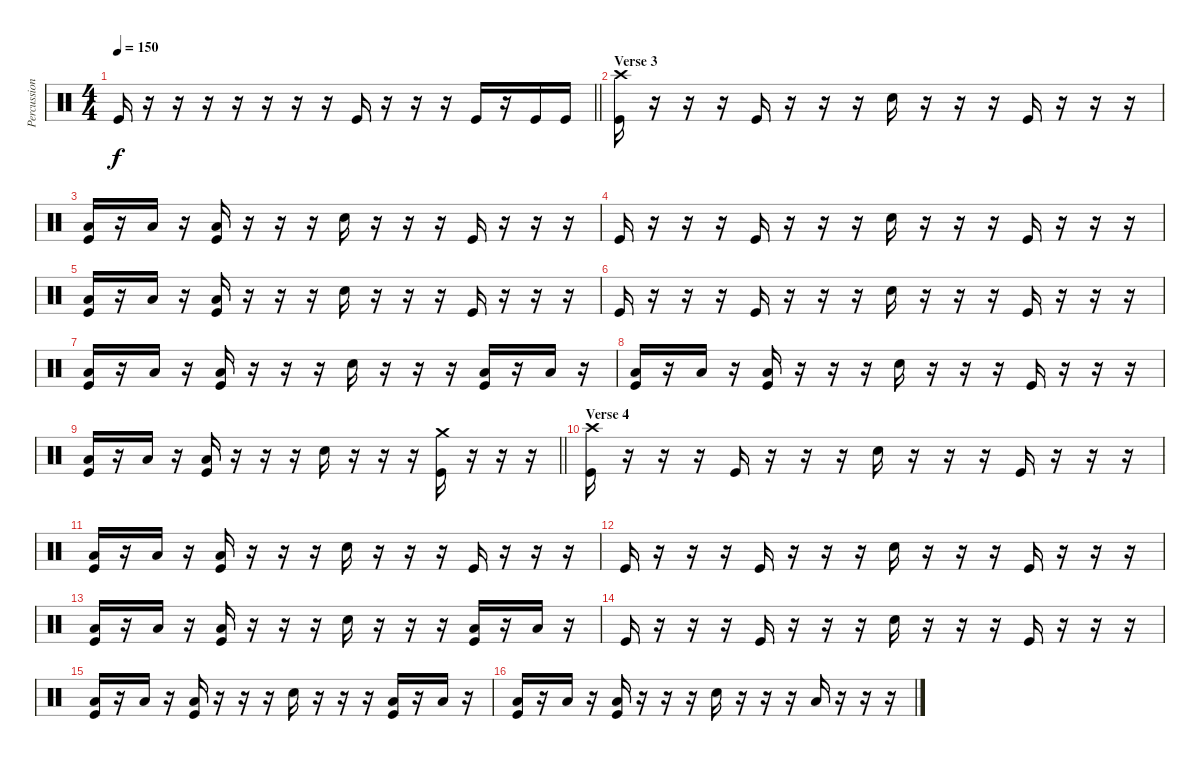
\track ("Percussion" "Percussion") {instrument percussion}
\staff {score}
\articulation defaults
\ts (4 4)
\tempo 150
\clef neutral
\barLineRight lightlight
\ks c "Kick (hit)".16{dy f}
r.16 r.16 r.16 r.16 r.16 r.16 r.16 "Kick (hit)".16 r.16 r.16 r.16 "Kick (hit)".16 r.16 "Kick (hit)".16 "Kick (hit)".16 |
\section ("" "Verse 3")
("Crash high (hit)" "Kick (hit)").16 r.16 r.16 r.16 "Kick (hit)".16 r.16 r.16 r.16 "Electric Snare (hit)".16 r.16 r.16 r.16 "Kick (hit)".16 r.16 r.16 r.16 |
("Low Floor Tom (hit)" "Kick (hit)").16 r.16 "Low Tom (hit)".16 r.16 ("Low Floor Tom (hit)" "Kick (hit)").16 r.16 r.16 r.16 "Electric Snare (hit)".16 r.16 r.16 r.16 "Kick (hit)".16 r.16 r.16 r.16 |
"Kick (hit)".16 r.16 r.16 r.16 "Kick (hit)".16 r.16 r.16 r.16 "Electric Snare (hit)".16 r.16 r.16 r.16 "Kick (hit)".16 r.16 r.16 r.16 |
("Low Floor Tom (hit)" "Kick (hit)").16 r.16 "Low Tom (hit)".16 r.16 ("Low Floor Tom (hit)" "Kick (hit)").16 r.16 r.16 r.16 "Electric Snare (hit)".16 r.16 r.16 r.16 "Kick (hit)".16 r.16 r.16 r.16 |
"Kick (hit)".16 r.16 r.16 r.16 "Kick (hit)".16 r.16 r.16 r.16 "Electric Snare (hit)".16 r.16 r.16 r.16 "Kick (hit)".16 r.16 r.16 r.16 |
("Low Floor Tom (hit)" "Kick (hit)").16 r.16 "Low Tom (hit)".16 r.16 ("Low Floor Tom (hit)" "Kick (hit)").16 r.16 r.16 r.16 "Electric Snare (hit)".16 r.16 r.16 r.16 ("Low Floor Tom (hit)" "Kick (hit)").16 r.16 "Low Tom (hit)".16 r.16 |
("Low Floor Tom (hit)" "Kick (hit)").16 r.16 "Low Tom (hit)".16 r.16 ("Low Floor Tom (hit)" "Kick (hit)").16 r.16 r.16 r.16 "Electric Snare (hit)".16 r.16 r.16 r.16 "Kick (hit)".16 r.16 r.16 r.16 |
\barLineRight lightlight
("Low Floor Tom (hit)" "Kick (hit)").16 r.16 "Low Tom (hit)".16 r.16 ("Low Floor Tom (hit)" "Kick (hit)").16 r.16 r.16 r.16 "Electric Snare (hit)".16 r.16 r.16 r.16 ("Crash medium (hit)" "Kick (hit)").16 r.16 r.16 r.16 |
\section ("" "Verse 4")
("Crash high (hit)" "Kick (hit)").16 r.16 r.16 r.16 "Kick (hit)".16 r.16 r.16 r.16 "Electric Snare (hit)".16 r.16 r.16 r.16 "Kick (hit)".16 r.16 r.16 r.16 |
("Low Floor Tom (hit)" "Kick (hit)").16 r.16 "Low Tom (hit)".16 r.16 ("Low Floor Tom (hit)" "Kick (hit)").16 r.16 r.16 r.16 "Electric Snare (hit)".16 r.16 r.16 r.16 "Kick (hit)".16 r.16 r.16 r.16 |
"Kick (hit)".16 r.16 r.16 r.16 "Kick (hit)".16 r.16 r.16 r.16 "Electric Snare (hit)".16 r.16 r.16 r.16 "Kick (hit)".16 r.16 r.16 r.16 |
("Low Floor Tom (hit)" "Kick (hit)").16 r.16 "Low Tom (hit)".16 r.16 ("Low Floor Tom (hit)" "Kick (hit)").16 r.16 r.16 r.16 "Electric Snare (hit)".16 r.16 r.16 r.16 ("Low Floor Tom (hit)" "Kick (hit)").16 r.16 "Low Tom (hit)".16 r.16 |
"Kick (hit)".16 r.16 r.16 r.16 "Kick (hit)".16 r.16 r.16 r.16 "Electric Snare (hit)".16 r.16 r.16 r.16 "Kick (hit)".16 r.16 r.16 r.16 |
("Low Floor Tom (hit)" "Kick (hit)").16 r.16 "Low Tom (hit)".16 r.16 ("Low Floor Tom (hit)" "Kick (hit)").16 r.16 r.16 r.16 "Electric Snare (hit)".16 r.16 r.16 r.16 ("Low Floor Tom (hit)" "Kick (hit)").16 r.16 "Low Tom (hit)".16 r.16 |
("Low Floor Tom (hit)" "Kick (hit)").16 r.16 "Low Tom (hit)".16 r.16 ("Low Floor Tom (hit)" "Kick (hit)").16 r.16 r.16 r.16 "Electric Snare (hit)".16 r.16 r.16 r.16 "Low Floor Tom (hit)".16 r.16 r.16 r.16
